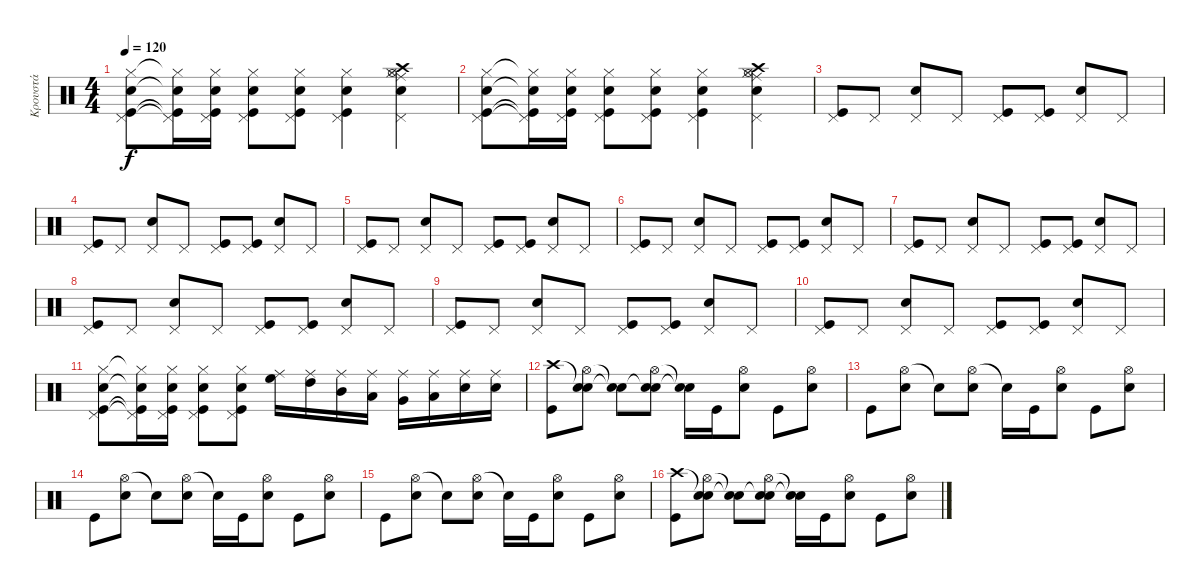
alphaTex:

\track ("Κρουστά" "Κρουστά") {instrument percussion}
\staff {score}
\articulation defaults
\ts (4 4)
\tempo 120
\clef neutral
\ks c
("Hi-Hat (closed)" "Pedal Hi-Hat (hit)" "Snare (hit) 2" "Kick (hit)").8{dy f} ("Hi-Hat (closed)"{t} "Pedal Hi-Hat (hit)"{t} "Snare (hit) 2"{t} "Kick (hit)"{t}).16 ("Hi-Hat (closed)" "Pedal Hi-Hat (hit)" "Snare (hit) 2" "Kick (hit)").16 ("Hi-Hat (closed)" "Pedal Hi-Hat (hit)" "Snare (hit) 2" "Kick (hit)").8 ("Hi-Hat (closed)" "Pedal Hi-Hat (hit)" "Snare (hit) 2" "Kick (hit)").8 ("Hi-Hat (closed)" "Pedal Hi-Hat (hit)" "Snare (hit) 2" "Kick (hit)").4 ("Hi-Hat (closed)" "Pedal Hi-Hat (hit)" "Snare (hit) 2" "Crash high (hit)" "Hi-Hat (open)" "Ride (middle)").4 |
("Hi-Hat (closed)" "Pedal Hi-Hat (hit)" "Snare (hit) 2" "Kick (hit)").8 ("Hi-Hat (closed)"{t} "Pedal Hi-Hat (hit)"{t} "Snare (hit) 2"{t} "Kick (hit)"{t}).16 ("Hi-Hat (closed)" "Pedal Hi-Hat (hit)" "Snare (hit) 2" "Kick (hit)").16 ("Hi-Hat (closed)" "Pedal Hi-Hat (hit)" "Snare (hit) 2" "Kick (hit)").8 ("Hi-Hat (closed)" "Pedal Hi-Hat (hit)" "Snare (hit) 2" "Kick (hit)").8 ("Hi-Hat (closed)" "Pedal Hi-Hat (hit)" "Snare (hit) 2" "Kick (hit)").4 ("Hi-Hat (closed)" "Pedal Hi-Hat (hit)" "Snare (hit) 2" "Crash high (hit)" "Hi-Hat (open)" "Ride (middle)").4 |
("Pedal Hi-Hat (hit)" "Kick (hit)").8 "Pedal Hi-Hat (hit)".8 ("Pedal Hi-Hat (hit)" "Snare (hit) 2").8 "Pedal Hi-Hat (hit)".8 ("Pedal Hi-Hat (hit)" "Kick (hit)").8 ("Pedal Hi-Hat (hit)" "Kick (hit)").8 ("Pedal Hi-Hat (hit)" "Snare (hit) 2").8 "Pedal Hi-Hat (hit)".8 |
("Pedal Hi-Hat (hit)" "Kick (hit)").8 "Pedal Hi-Hat (hit)".8 ("Pedal Hi-Hat (hit)" "Snare (hit) 2").8 "Pedal Hi-Hat (hit)".8 ("Pedal Hi-Hat (hit)" "Kick (hit)").8 ("Pedal Hi-Hat (hit)" "Kick (hit)").8 ("Pedal Hi-Hat (hit)" "Snare (hit) 2").8 "Pedal Hi-Hat (hit)".8 |
("Pedal Hi-Hat (hit)" "Kick (hit)").8 "Pedal Hi-Hat (hit)".8 ("Pedal Hi-Hat (hit)" "Snare (hit) 2").8 "Pedal Hi-Hat (hit)".8 ("Pedal Hi-Hat (hit)" "Kick (hit)").8 ("Pedal Hi-Hat (hit)" "Kick (hit)").8 ("Pedal Hi-Hat (hit)" "Snare (hit) 2").8 "Pedal Hi-Hat (hit)".8 |
("Pedal Hi-Hat (hit)" "Kick (hit)").8 "Pedal Hi-Hat (hit)".8 ("Pedal Hi-Hat (hit)" "Snare (hit) 2").8 "Pedal Hi-Hat (hit)".8 ("Pedal Hi-Hat (hit)" "Kick (hit)").8 ("Pedal Hi-Hat (hit)" "Kick (hit)").8 ("Pedal Hi-Hat (hit)" "Snare (hit) 2").8 "Pedal Hi-Hat (hit)".8 |
("Pedal Hi-Hat (hit)" "Kick (hit)").8 "Pedal Hi-Hat (hit)".8 ("Pedal Hi-Hat (hit)" "Snare (hit) 2").8 "Pedal Hi-Hat (hit)".8 ("Pedal Hi-Hat (hit)" "Kick (hit)").8 ("Pedal Hi-Hat (hit)" "Kick (hit)").8 ("Pedal Hi-Hat (hit)" "Snare (hit) 2").8 "Pedal Hi-Hat (hit)".8 |
("Pedal Hi-Hat (hit)" "Kick (hit)").8 "Pedal Hi-Hat (hit)".8 ("Pedal Hi-Hat (hit)" "Snare (hit) 2").8 "Pedal Hi-Hat (hit)".8 ("Pedal Hi-Hat (hit)" "Kick (hit)").8 ("Pedal Hi-Hat (hit)" "Kick (hit)").8 ("Pedal Hi-Hat (hit)" "Snare (hit) 2").8 "Pedal Hi-Hat (hit)".8 |
("Pedal Hi-Hat (hit)" "Kick (hit)").8 "Pedal Hi-Hat (hit)".8 ("Pedal Hi-Hat (hit)" "Snare (hit) 2").8 "Pedal Hi-Hat (hit)".8 ("Pedal Hi-Hat (hit)" "Kick (hit)").8 ("Pedal Hi-Hat (hit)" "Kick (hit)").8 ("Pedal Hi-Hat (hit)" "Snare (hit) 2").8 "Pedal Hi-Hat (hit)".8 |
("Pedal Hi-Hat (hit)" "Kick (hit)").8 "Pedal Hi-Hat (hit)".8 ("Pedal Hi-Hat (hit)" "Snare (hit) 2").8 "Pedal Hi-Hat (hit)".8 ("Pedal Hi-Hat (hit)" "Kick (hit)").8 ("Pedal Hi-Hat (hit)" "Kick (hit)").8 ("Pedal Hi-Hat (hit)" "Snare (hit) 2").8 "Pedal Hi-Hat (hit)".8 |
("Hi-Hat (closed)" "Pedal Hi-Hat (hit)" "Snare (hit) 2" "Kick (hit)").8 ("Hi-Hat (closed)"{t} "Pedal Hi-Hat (hit)"{t} "Snare (hit) 2"{t} "Kick (hit)"{t}).16 ("Hi-Hat (closed)" "Pedal Hi-Hat (hit)" "Snare (hit) 2" "Kick (hit)").16 ("Hi-Hat (closed)" "Pedal Hi-Hat (hit)" "Snare (hit) 2" "Kick (hit)").8 ("Hi-Hat (closed)" "Pedal Hi-Hat (hit)" "Snare (hit) 2" "Kick (hit)").8 ("High Floor Tom (hit)" "Ride (middle)").16{volume 16} ("High Tom (hit)" "Ride (middle)").16 ("Mid Tom (hit)" "Ride (middle)").16 ("Low Tom (hit)" "Ride (middle)").16 ("Very Low Tom (hit)" "Ride (middle)").16 ("Low Floor Tom (hit)" "Ride (middle)").16 ("Snare (hit) 2" "Ride (middle)").16 ("Snare (hit) 2" "Ride (middle)").16 |
("Crash high (hit)" "Kick (hit)").8{volume 13} ("Snare (hit)"{t} "Hi-Hat (open)" "Snare (hit) 2").8 ("Snare (hit)"{t} "Snare (hit)"{t}).8 ("Snare (hit)"{t} "Hi-Hat (open)" "Snare (hit) 2").8 ("Snare (hit)"{t} "Snare (hit)"{t}).16 "Kick (hit)".16 ("Hi-Hat (open)" "Snare (hit) 2").8 "Kick (hit)".8 ("Hi-Hat (open)" "Snare (hit) 2").8 |
"Kick (hit)".8 ("Hi-Hat (open)" "Snare (hit) 2").8 "Snare (hit)"{t}.8 ("Hi-Hat (open)" "Snare (hit) 2").8 "Snare (hit)"{t}.16 "Kick (hit)".16 ("Hi-Hat (open)" "Snare (hit) 2").8 "Kick (hit)".8 ("Hi-Hat (open)" "Snare (hit) 2").8 |
"Kick (hit)".8 ("Hi-Hat (open)" "Snare (hit) 2").8 "Snare (hit)"{t}.8 ("Hi-Hat (open)" "Snare (hit) 2").8 "Snare (hit)"{t}.16 "Kick (hit)".16 ("Hi-Hat (open)" "Snare (hit) 2").8 "Kick (hit)".8 ("Hi-Hat (open)" "Snare (hit) 2").8 |
"Kick (hit)".8 ("Hi-Hat (open)" "Snare (hit) 2").8 "Snare (hit)"{t}.8 ("Hi-Hat (open)" "Snare (hit) 2").8 "Snare (hit)"{t}.16 "Kick (hit)".16 ("Hi-Hat (open)" "Snare (hit) 2").8 "Kick (hit)".8 ("Hi-Hat (open)" "Snare (hit) 2").8 |
("Crash high (hit)" "Kick (hit)").8 ("Snare (hit)"{t} "Hi-Hat (open)" "Snare (hit) 2").8 ("Snare (hit)"{t} "Snare (hit)"{t}).8 ("Snare (hit)"{t} "Hi-Hat (open)" "Snare (hit) 2").8 ("Snare (hit)"{t} "Snare (hit)"{t}).16 "Kick (hit)".16 ("Hi-Hat (open)" "Snare (hit) 2").8 "Kick (hit)".8 ("Hi-Hat (open)" "Snare (hit) 2").8
